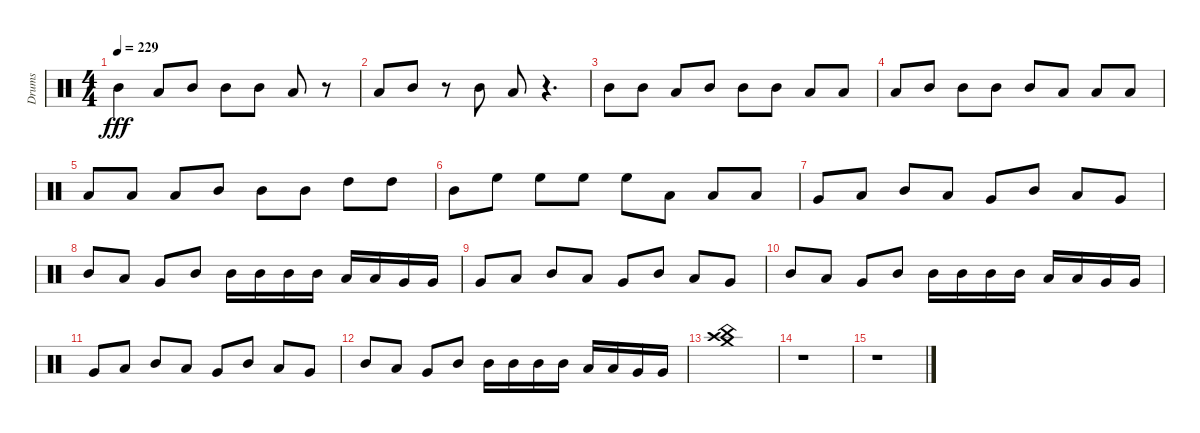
\track ("Drums" "Drums") {instrument percussion}
\staff {score}
\articulation defaults
\ts (4 4)
\tempo 229
\clef neutral
\ks c "Mid Tom (hit)".4{dy fff} "Low Tom (hit)".8 "Mid Tom (hit)".8 "Mid Tom (hit)".8 "Mid Tom (hit)".8 "Low Tom (hit)".8
r.8 |
"Low Tom (hit)".8 "Mid Tom (hit)".8 r.8 "Mid Tom (hit)".8 "Low Tom (hit)".8 r.4{d} |
"Mid Tom (hit)".8 "Mid Tom (hit)".8 "Low Tom (hit)".8 "Mid Tom (hit)".8 "Mid Tom (hit)".8 "Mid Tom (hit)".8 "Low Tom (hit)".8 "Low Tom (hit)".8 |
"Low Tom (hit)".8 "Mid Tom (hit)".8 "Mid Tom (hit)".8 "Mid Tom (hit)".8 "Mid Tom (hit)".8 "Low Tom (hit)".8 "Low Tom (hit)".8 "Low Tom (hit)".8 |
"Low Tom (hit)".8 "Low Tom (hit)".8 "Low Tom (hit)".8 "Mid Tom (hit)".8 "Mid Tom (hit)".8 "Mid Tom (hit)".8 "High Tom (hit)".8 "High Tom (hit)".8 |
"Mid Tom (hit)".8 "High Floor Tom (hit)".8 "High Floor Tom (hit)".8 "High Floor Tom (hit)".8 "High Floor Tom (hit)".8 "Low Tom (hit)".8 "Low Tom (hit)".8 "Low Tom (hit)".8 |
"Very Low Tom (hit)".8 "Low Tom (hit)".8 "Mid Tom (hit)".8 "Low Floor Tom (hit)".8 "Very Low Tom (hit)".8 "Mid Tom (hit)".8 "Low Floor Tom (hit)".8 "Very Low Tom (hit)".8 |
"Mid Tom (hit)".8 "Low Floor Tom (hit)".8 "Very Low Tom (hit)".8 "Mid Tom (hit)".8 "Mid Tom (hit)".16 "Mid Tom (hit)".16 "Mid Tom (hit)".16 "Mid Tom (hit)".16 "Low Tom (hit)".16 "Low Tom (hit)".16 "Very Low Tom (hit)".16 "Very Low Tom (hit)".16 |
"Very Low Tom (hit)".8 "Low Tom (hit)".8 "Mid Tom (hit)".8 "Low Floor Tom (hit)".8 "Very Low Tom (hit)".8 "Mid Tom (hit)".8 "Low Floor Tom (hit)".8 "Very Low Tom (hit)".8 |
"Mid Tom (hit)".8 "Low Floor Tom (hit)".8 "Very Low Tom (hit)".8 "Mid Tom (hit)".8 "Mid Tom (hit)".16 "Mid Tom (hit)".16 "Mid Tom (hit)".16 "Mid Tom (hit)".16 "Low Tom (hit)".16 "Low Tom (hit)".16 "Very Low Tom (hit)".16 "Very Low Tom (hit)".16 |
"Very Low Tom (hit)".8 "Low Tom (hit)".8 "Mid Tom (hit)".8 "Low Floor Tom (hit)".8 "Very Low Tom (hit)".8 "Mid Tom (hit)".8 "Low Floor Tom (hit)".8 "Very Low Tom (hit)".8 |
"Mid Tom (hit)".8 "Low Floor Tom (hit)".8 "Very Low Tom (hit)".8 "Mid Tom (hit)".8 "Mid Tom (hit)".16 "Mid Tom (hit)".16 "Mid Tom (hit)".16 "Mid Tom (hit)".16 "Low Tom (hit)".16 "Low Tom (hit)".16 "Very Low Tom (hit)".16 "Very Low Tom (hit)".16 |
("Crash medium (hit)" "Crash high (hit)" "China (hit)").1 |
r.1 |
r.1
